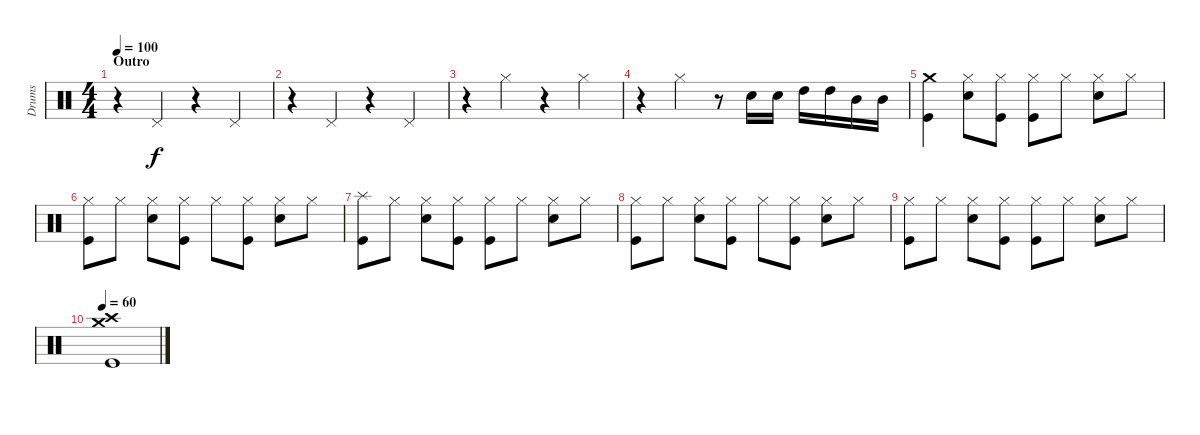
\track ("Drums" "Drums") {instrument percussion}
\staff {score}
\articulation defaults
\ts (4 4)
\section ("" "Outro")
\tempo 100
\clef neutral
\ks c
r.4{dy f} "Pedal Hi-Hat (hit)".4 r.4 "Pedal Hi-Hat (hit)".4 |
r.4 "Pedal Hi-Hat (hit)".4 r.4 "Pedal Hi-Hat (hit)".4 |
r.4 "Hi-Hat (closed)".4 r.4 "Hi-Hat (closed)".4 |
r.4 "Hi-Hat (closed)".4 r.8 "Electric Snare (hit)".16 "Electric Snare (hit)".16 "High Tom (hit)".16 "High Tom (hit)".16 "Mid Tom (hit)".16 "Mid Tom (hit)".16 |
("Crash medium (hit)" "Kick (hit)").4 ("Hi-Hat (closed)" "Electric Snare (hit)").8 ("Hi-Hat (closed)" "Kick (hit)").8 ("Hi-Hat (closed)" "Kick (hit)").8 "Hi-Hat (closed)".8 ("Hi-Hat (closed)" "Electric Snare (hit)").8 "Hi-Hat (closed)".8 |
("Hi-Hat (closed)" "Kick (hit)").8 "Hi-Hat (closed)".8 ("Hi-Hat (closed)" "Electric Snare (hit)").8 ("Hi-Hat (closed)" "Kick (hit)").8 "Hi-Hat (closed)".8 ("Hi-Hat (closed)" "Kick (hit)").8 ("Hi-Hat (closed)" "Electric Snare (hit)").8 "Hi-Hat (closed)".8 |
("Splash (hit)" "Kick (hit)").8 "Hi-Hat (closed)".8 ("Hi-Hat (closed)" "Electric Snare (hit)").8 ("Hi-Hat (closed)" "Kick (hit)").8 ("Hi-Hat (closed)" "Kick (hit)").8 "Hi-Hat (closed)".8 ("Hi-Hat (closed)" "Electric Snare (hit)").8 "Hi-Hat (closed)".8 |
("Hi-Hat (closed)" "Kick (hit)").8 "Hi-Hat (closed)".8 ("Hi-Hat (closed)" "Electric Snare (hit)").8 ("Hi-Hat (closed)" "Kick (hit)").8 "Hi-Hat (closed)".8 ("Hi-Hat (closed)" "Kick (hit)").8 ("Hi-Hat (closed)" "Electric Snare (hit)").8 "Hi-Hat (closed)".8 |
("Hi-Hat (closed)" "Kick (hit)").8 "Hi-Hat (closed)".8 ("Hi-Hat (closed)" "Electric Snare (hit)").8 ("Hi-Hat (closed)" "Kick (hit)").8 ("Hi-Hat (closed)" "Kick (hit)").8 "Hi-Hat (closed)".8 ("Hi-Hat (closed)" "Electric Snare (hit)").8 "Hi-Hat (closed)".8 |
\tempo 60
("Crash high (hit)" "Crash medium (hit)" "Kick (hit)").1
